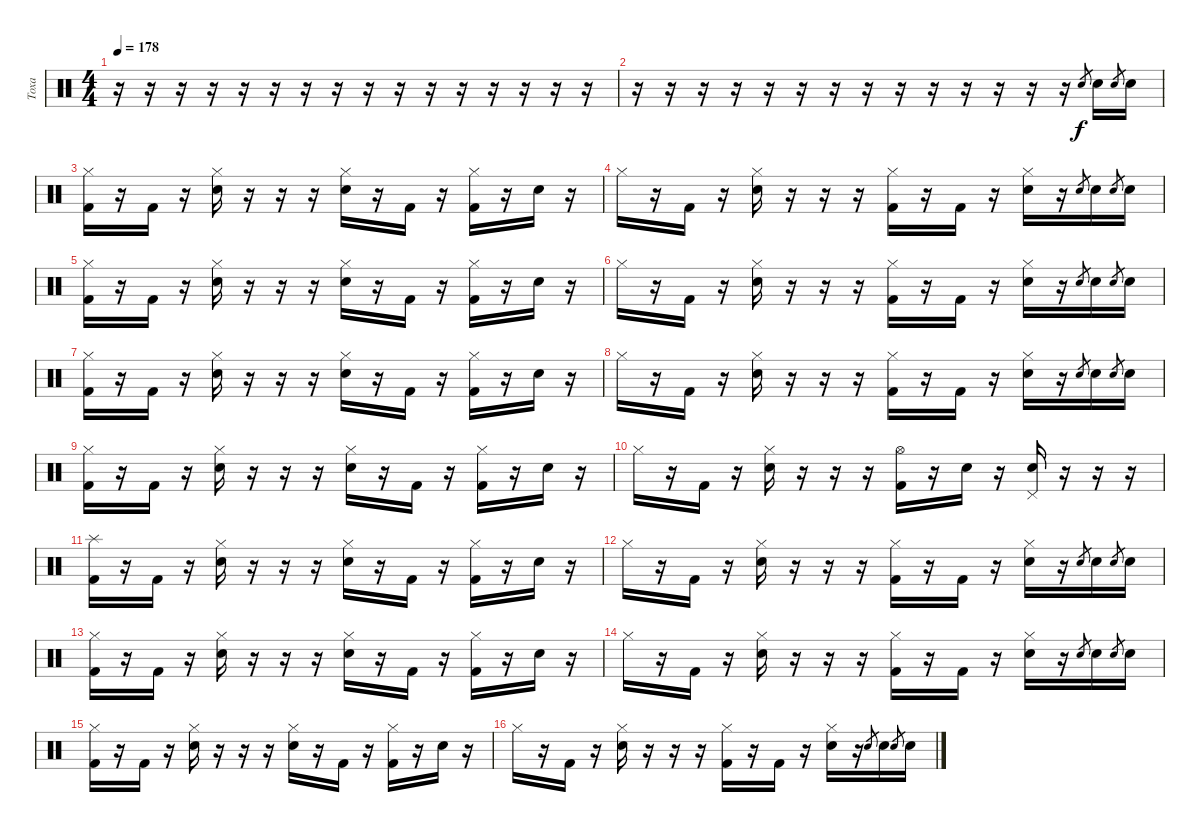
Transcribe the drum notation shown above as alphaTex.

\track ("Тоха" "Тоха") {instrument percussion}
\staff {score}
\articulation defaults
\ts (4 4)
\tempo 178
\clef neutral
\ks c
r.16{dy f} r.16 r.16 r.16 r.16 r.16 r.16 r.16 r.16 r.16 r.16 r.16 r.16 r.16 r.16 r.16 |
r.16 r.16 r.16 r.16 r.16 r.16 r.16 r.16 r.16 r.16 r.16 r.16 r.16 r.16 "Electric Snare (hit)".8{gr} "Electric Snare (hit)".16 "Electric Snare (hit)".8{gr} "Electric Snare (hit)".16 |
("Hi-Hat (closed)" "Kick (hit) 2").16 r.16 "Kick (hit) 2".16 r.16 ("Hi-Hat (closed)" "Electric Snare (hit)").16 r.16 r.16 r.16 ("Hi-Hat (closed)" "Electric Snare (hit)").16 r.16 "Kick (hit) 2".16 r.16 ("Hi-Hat (closed)" "Kick (hit) 2").16 r.16 "Electric Snare (hit)".16 r.16 |
"Hi-Hat (closed)".16 r.16 "Kick (hit) 2".16 r.16 ("Hi-Hat (closed)" "Electric Snare (hit)").16 r.16 r.16 r.16 ("Hi-Hat (closed)" "Kick (hit) 2").16 r.16 "Kick (hit) 2".16 r.16 ("Hi-Hat (closed)" "Electric Snare (hit)").16 r.16 "Electric Snare (hit)".8{gr} "Electric Snare (hit)".16 "Electric Snare (hit)".8{gr} "Electric Snare (hit)".16 |
("Hi-Hat (closed)" "Kick (hit) 2").16 r.16 "Kick (hit) 2".16 r.16 ("Hi-Hat (closed)" "Electric Snare (hit)").16 r.16 r.16 r.16 ("Hi-Hat (closed)" "Electric Snare (hit)").16 r.16 "Kick (hit) 2".16 r.16 ("Hi-Hat (closed)" "Kick (hit) 2").16 r.16 "Electric Snare (hit)".16 r.16 |
"Hi-Hat (closed)".16 r.16 "Kick (hit) 2".16 r.16 ("Hi-Hat (closed)" "Electric Snare (hit)").16 r.16 r.16 r.16 ("Hi-Hat (closed)" "Kick (hit) 2").16 r.16 "Kick (hit) 2".16 r.16 ("Hi-Hat (closed)" "Electric Snare (hit)").16 r.16 "Electric Snare (hit)".8{gr} "Electric Snare (hit)".16 "Electric Snare (hit)".8{gr} "Electric Snare (hit)".16 |
("Hi-Hat (closed)" "Kick (hit) 2").16 r.16 "Kick (hit) 2".16 r.16 ("Hi-Hat (closed)" "Electric Snare (hit)").16 r.16 r.16 r.16 ("Hi-Hat (closed)" "Electric Snare (hit)").16 r.16 "Kick (hit) 2".16 r.16 ("Hi-Hat (closed)" "Kick (hit) 2").16 r.16 "Electric Snare (hit)".16 r.16 |
"Hi-Hat (closed)".16 r.16 "Kick (hit) 2".16 r.16 ("Hi-Hat (closed)" "Electric Snare (hit)").16 r.16 r.16 r.16 ("Hi-Hat (closed)" "Kick (hit) 2").16 r.16 "Kick (hit) 2".16 r.16 ("Hi-Hat (closed)" "Electric Snare (hit)").16 r.16 "Electric Snare (hit)".8{gr} "Electric Snare (hit)".16 "Electric Snare (hit)".8{gr} "Electric Snare (hit)".16 |
("Hi-Hat (closed)" "Kick (hit) 2").16 r.16 "Kick (hit) 2".16 r.16 ("Hi-Hat (closed)" "Electric Snare (hit)").16 r.16 r.16 r.16 ("Hi-Hat (closed)" "Electric Snare (hit)").16 r.16 "Kick (hit) 2".16 r.16 ("Hi-Hat (closed)" "Kick (hit) 2").16 r.16 "Electric Snare (hit)".16 r.16 |
"Hi-Hat (closed)".16 r.16 "Kick (hit) 2".16 r.16 ("Hi-Hat (closed)" "Electric Snare (hit)").16 r.16 r.16 r.16 ("Hi-Hat (open)" "Kick (hit) 2").16 r.16 "Electric Snare (hit)".16 r.16 ("Pedal Hi-Hat (hit)" "Electric Snare (hit)").16 r.16 r.16 r.16 |
("Splash (hit)" "Kick (hit) 2").16 r.16 "Kick (hit) 2".16 r.16 ("Hi-Hat (closed)" "Electric Snare (hit)").16 r.16 r.16 r.16 ("Hi-Hat (closed)" "Electric Snare (hit)").16 r.16 "Kick (hit) 2".16 r.16 ("Hi-Hat (closed)" "Kick (hit) 2").16 r.16 "Electric Snare (hit)".16 r.16 |
"Hi-Hat (closed)".16 r.16 "Kick (hit) 2".16 r.16 ("Hi-Hat (closed)" "Electric Snare (hit)").16 r.16 r.16 r.16 ("Hi-Hat (closed)" "Kick (hit) 2").16 r.16 "Kick (hit) 2".16 r.16 ("Hi-Hat (closed)" "Electric Snare (hit)").16 r.16 "Electric Snare (hit)".8{gr} "Electric Snare (hit)".16 "Electric Snare (hit)".8{gr} "Electric Snare (hit)".16 |
("Hi-Hat (closed)" "Kick (hit) 2").16 r.16 "Kick (hit) 2".16 r.16 ("Hi-Hat (closed)" "Electric Snare (hit)").16 r.16 r.16 r.16 ("Hi-Hat (closed)" "Electric Snare (hit)").16 r.16 "Kick (hit) 2".16 r.16 ("Hi-Hat (closed)" "Kick (hit) 2").16 r.16 "Electric Snare (hit)".16 r.16 |
"Hi-Hat (closed)".16 r.16 "Kick (hit) 2".16 r.16 ("Hi-Hat (closed)" "Electric Snare (hit)").16 r.16 r.16 r.16 ("Hi-Hat (closed)" "Kick (hit) 2").16 r.16 "Kick (hit) 2".16 r.16 ("Hi-Hat (closed)" "Electric Snare (hit)").16 r.16 "Electric Snare (hit)".8{gr} "Electric Snare (hit)".16 "Electric Snare (hit)".8{gr} "Electric Snare (hit)".16 |
("Hi-Hat (closed)" "Kick (hit) 2").16 r.16 "Kick (hit) 2".16 r.16 ("Hi-Hat (closed)" "Electric Snare (hit)").16 r.16 r.16 r.16 ("Hi-Hat (closed)" "Electric Snare (hit)").16 r.16 "Kick (hit) 2".16 r.16 ("Hi-Hat (closed)" "Kick (hit) 2").16 r.16 "Electric Snare (hit)".16 r.16 |
"Hi-Hat (closed)".16 r.16 "Kick (hit) 2".16 r.16 ("Hi-Hat (closed)" "Electric Snare (hit)").16 r.16 r.16 r.16 ("Hi-Hat (closed)" "Kick (hit) 2").16 r.16 "Kick (hit) 2".16 r.16 ("Hi-Hat (closed)" "Electric Snare (hit)").16 r.16 "Electric Snare (hit)".8{gr} "Electric Snare (hit)".16 "Electric Snare (hit)".8{gr} "Electric Snare (hit)".16
